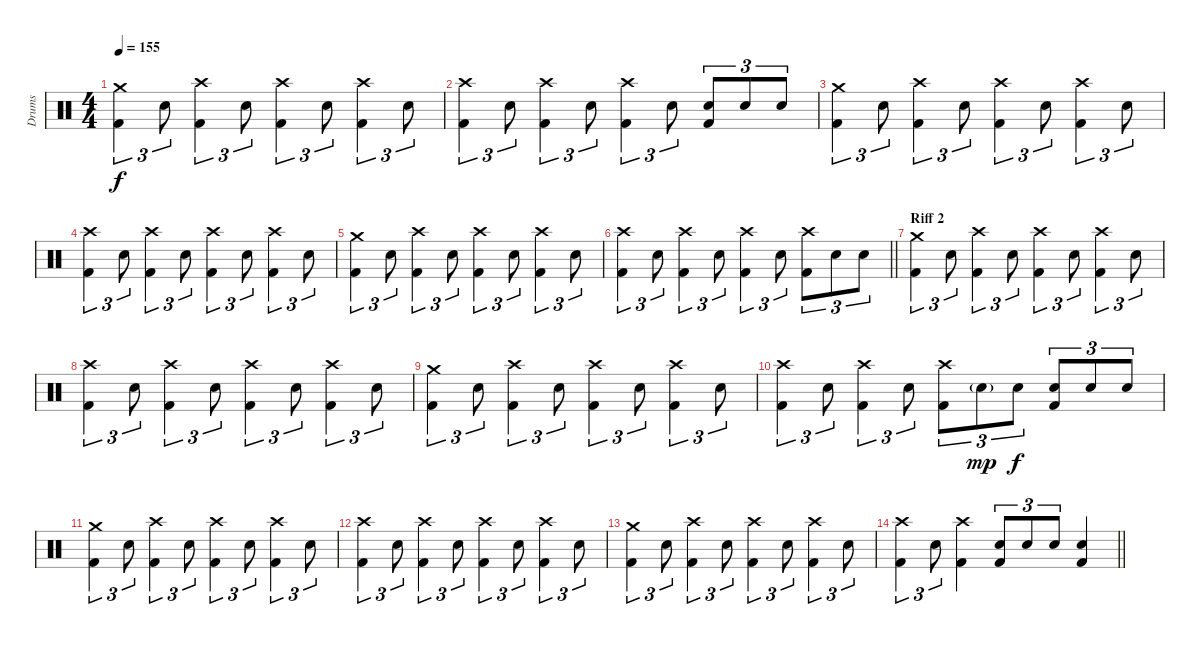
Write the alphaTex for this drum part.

\track ("Drums" "Drums") {instrument percussion}
\staff {score}
\articulation defaults
\ts (4 4)
\tempo 155
\clef neutral
\ks c
("Kick (hit) 2" "Crash medium (hit)").4{tu (3 2) dy f} "Electric Snare (hit)".8{tu (3 2)} ("Kick (hit) 2" "Crash high (hit)").4{tu (3 2)} "Electric Snare (hit)".8{tu (3 2)} ("Kick (hit) 2" "Crash high (hit)").4{tu (3 2)} "Electric Snare (hit)".8{tu (3 2)} ("Kick (hit) 2" "Crash high (hit)").4{tu (3 2)} "Electric Snare (hit)".8{tu (3 2)} |
("Kick (hit) 2" "Crash high (hit)").4{tu (3 2)} "Electric Snare (hit)".8{tu (3 2)} ("Kick (hit) 2" "Crash high (hit)").4{tu (3 2)} "Electric Snare (hit)".8{tu (3 2)} ("Kick (hit) 2" "Crash high (hit)").4{tu (3 2)} "Electric Snare (hit)".8{tu (3 2)} ("Electric Snare (hit)" "Kick (hit) 2").8{tu (3 2)} "Electric Snare (hit)".8{tu (3 2)} "Electric Snare (hit)".8{tu (3 2)} |
("Crash medium (hit)" "Kick (hit) 2").4{tu (3 2)} "Electric Snare (hit)".8{tu (3 2)} ("Kick (hit) 2" "Crash high (hit)").4{tu (3 2)} "Electric Snare (hit)".8{tu (3 2)} ("Kick (hit) 2" "Crash high (hit)").4{tu (3 2)} "Electric Snare (hit)".8{tu (3 2)} ("Kick (hit) 2" "Crash high (hit)").4{tu (3 2)} "Electric Snare (hit)".8{tu (3 2)} |
("Kick (hit) 2" "Crash high (hit)").4{tu (3 2)} "Electric Snare (hit)".8{tu (3 2)} ("Kick (hit) 2" "Crash high (hit)").4{tu (3 2)} "Electric Snare (hit)".8{tu (3 2)} ("Kick (hit) 2" "Crash high (hit)").4{tu (3 2)} "Electric Snare (hit)".8{tu (3 2)} ("Kick (hit) 2" "Crash high (hit)").4{tu (3 2)} "Electric Snare (hit)".8{tu (3 2)} |
("Kick (hit) 2" "Crash medium (hit)").4{tu (3 2)} "Electric Snare (hit)".8{tu (3 2)} ("Kick (hit) 2" "Crash high (hit)").4{tu (3 2)} "Electric Snare (hit)".8{tu (3 2)} ("Kick (hit) 2" "Crash high (hit)").4{tu (3 2)} "Electric Snare (hit)".8{tu (3 2)} ("Kick (hit) 2" "Crash high (hit)").4{tu (3 2)} "Electric Snare (hit)".8{tu (3 2)} |
\barLineRight lightlight
("Kick (hit) 2" "Crash high (hit)").4{tu (3 2)} "Electric Snare (hit)".8{tu (3 2)} ("Kick (hit) 2" "Crash high (hit)").4{tu (3 2)} "Electric Snare (hit)".8{tu (3 2)} ("Kick (hit) 2" "Crash high (hit)").4{tu (3 2)} "Electric Snare (hit)".8{tu (3 2)} ("Crash high (hit)" "Kick (hit) 2").8{tu (3 2)} "Electric Snare (hit)".8{tu (3 2)} "Electric Snare (hit)".8{tu (3 2)} |
\section ("" "Riff 2")
("Crash medium (hit)" "Kick (hit) 2").4{tu (3 2)} "Electric Snare (hit)".8{tu (3 2)} ("Kick (hit) 2" "Crash high (hit)").4{tu (3 2)} "Electric Snare (hit)".8{tu (3 2)} ("Kick (hit) 2" "Crash high (hit)").4{tu (3 2)} "Electric Snare (hit)".8{tu (3 2)} ("Kick (hit) 2" "Crash high (hit)").4{tu (3 2)} "Electric Snare (hit)".8{tu (3 2)} |
("Kick (hit) 2" "Crash high (hit)").4{tu (3 2)} "Electric Snare (hit)".8{tu (3 2)} ("Kick (hit) 2" "Crash high (hit)").4{tu (3 2)} "Electric Snare (hit)".8{tu (3 2)} ("Kick (hit) 2" "Crash high (hit)").4{tu (3 2)} "Electric Snare (hit)".8{tu (3 2)} ("Kick (hit) 2" "Crash high (hit)").4{tu (3 2)} "Electric Snare (hit)".8{tu (3 2)} |
("Kick (hit) 2" "Crash medium (hit)").4{tu (3 2)} "Electric Snare (hit)".8{tu (3 2)} ("Kick (hit) 2" "Crash high (hit)").4{tu (3 2)} "Electric Snare (hit)".8{tu (3 2)} ("Kick (hit) 2" "Crash high (hit)").4{tu (3 2)} "Electric Snare (hit)".8{tu (3 2)} ("Kick (hit) 2" "Crash high (hit)").4{tu (3 2)} "Electric Snare (hit)".8{tu (3 2)} |
("Kick (hit) 2" "Crash high (hit)").4{tu (3 2)} "Electric Snare (hit)".8{tu (3 2)} ("Kick (hit) 2" "Crash high (hit)").4{tu (3 2)} "Electric Snare (hit)".8{tu (3 2)} ("Kick (hit) 2" "Crash high (hit)").8{tu (3 2)} "Electric Snare (hit)"{g}.8{tu (3 2) dy mp} "Electric Snare (hit)".8{tu (3 2) dy f} ("Electric Snare (hit)" "Kick (hit) 2").8{tu (3 2)} "Electric Snare (hit)".8{tu (3 2)} "Electric Snare (hit)".8{tu (3 2)} |
("Crash medium (hit)" "Kick (hit) 2").4{tu (3 2)} "Electric Snare (hit)".8{tu (3 2)} ("Kick (hit) 2" "Crash high (hit)").4{tu (3 2)} "Electric Snare (hit)".8{tu (3 2)} ("Kick (hit) 2" "Crash high (hit)").4{tu (3 2)} "Electric Snare (hit)".8{tu (3 2)} ("Kick (hit) 2" "Crash high (hit)").4{tu (3 2)} "Electric Snare (hit)".8{tu (3 2)} |
("Kick (hit) 2" "Crash high (hit)").4{tu (3 2)} "Electric Snare (hit)".8{tu (3 2)} ("Kick (hit) 2" "Crash high (hit)").4{tu (3 2)} "Electric Snare (hit)".8{tu (3 2)} ("Kick (hit) 2" "Crash high (hit)").4{tu (3 2)} "Electric Snare (hit)".8{tu (3 2)} ("Kick (hit) 2" "Crash high (hit)").4{tu (3 2)} "Electric Snare (hit)".8{tu (3 2)} |
("Kick (hit) 2" "Crash medium (hit)").4{tu (3 2)} "Electric Snare (hit)".8{tu (3 2)} ("Kick (hit) 2" "Crash high (hit)").4{tu (3 2)} "Electric Snare (hit)".8{tu (3 2)} ("Kick (hit) 2" "Crash high (hit)").4{tu (3 2)} "Electric Snare (hit)".8{tu (3 2)} ("Kick (hit) 2" "Crash high (hit)").4{tu (3 2)} "Electric Snare (hit)".8{tu (3 2)} |
\barLineRight lightlight
("Kick (hit) 2" "Crash high (hit)").4{tu (3 2)} "Electric Snare (hit)".8{tu (3 2)} ("Kick (hit) 2" "Crash high (hit)").4 ("Kick (hit) 2" "Electric Snare (hit)").8{tu (3 2)} "Electric Snare (hit)".8{tu (3 2)} "Electric Snare (hit)".8{tu (3 2)} ("Electric Snare (hit)" "Kick (hit) 2").4
